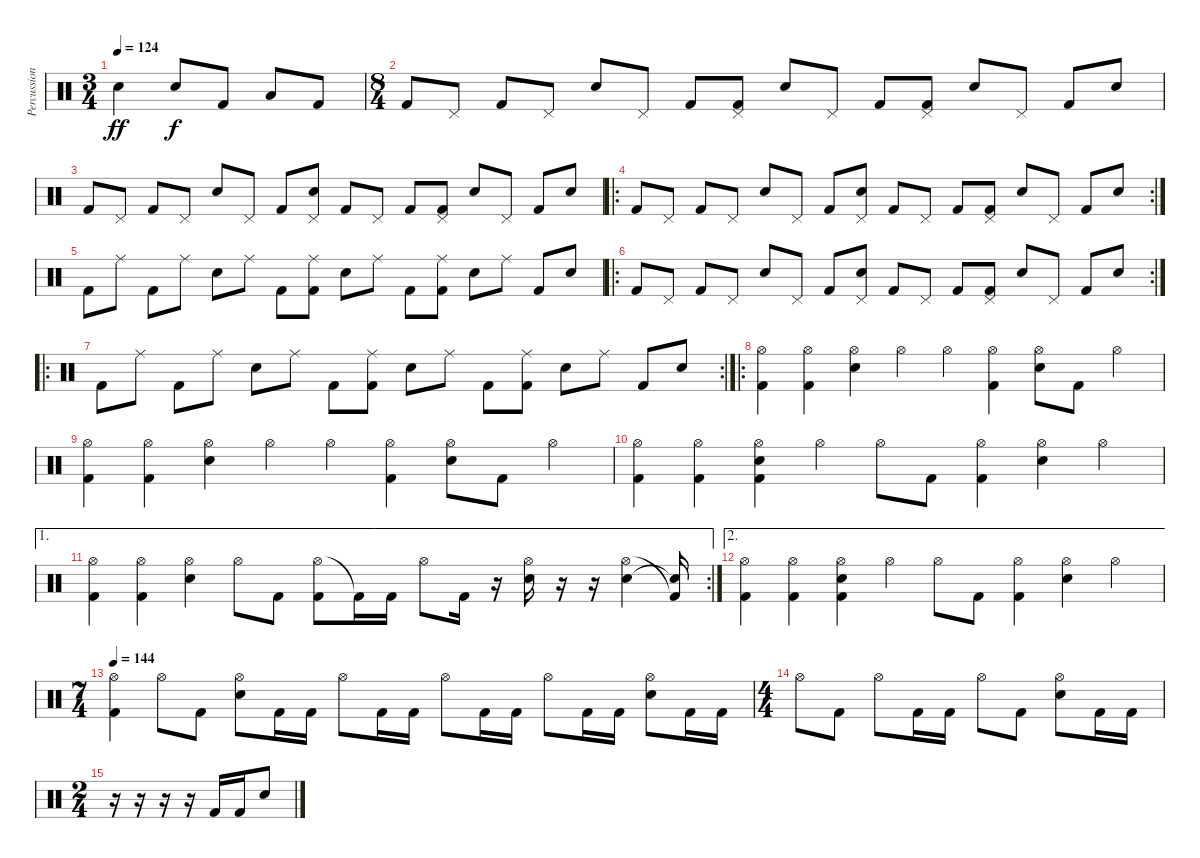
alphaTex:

\track ("Percussion" "Percussion") {instrument percussion}
\staff {score}
\articulation defaults
\ts (3 4)
\tempo 124
\clef neutral
\ks c "Snare (hit) 2"{tr (38 32)}.4{dy ff} "Snare (hit) 2".8{dy f} "Kick (hit) 2".8 "Low Tom (hit)".8 "Kick (hit) 2".8
|
\ts (8 4)
"Kick (hit) 2".8 "Pedal Hi-Hat (hit)".8 "Kick (hit) 2".8 "Pedal Hi-Hat (hit)".8 "Snare (hit) 2".8 "Pedal Hi-Hat (hit)".8 "Kick (hit) 2".8 ("Pedal Hi-Hat (hit)" "Kick (hit) 2").8 "Snare (hit) 2".8 "Pedal Hi-Hat (hit)".8 "Kick (hit) 2".8 ("Pedal Hi-Hat (hit)" "Kick (hit) 2").8 "Snare (hit) 2".8 "Pedal Hi-Hat (hit)".8 "Kick (hit) 2".8 "Snare (hit) 2".8 |
"Kick (hit) 2".8 "Pedal Hi-Hat (hit)".8 "Kick (hit) 2".8 "Pedal Hi-Hat (hit)".8 "Snare (hit) 2".8 "Pedal Hi-Hat (hit)".8 "Kick (hit) 2".8 ("Pedal Hi-Hat (hit)" "Snare (hit) 2").8 "Kick (hit) 2".8 "Pedal Hi-Hat (hit)".8 "Kick (hit) 2".8 ("Pedal Hi-Hat (hit)" "Kick (hit) 2").8 "Snare (hit) 2".8 "Pedal Hi-Hat (hit)".8 "Kick (hit) 2".8 "Snare (hit) 2".8 |
\ro
\rc 2 "Kick (hit) 2".8 "Pedal Hi-Hat (hit)".8 "Kick (hit) 2".8 "Pedal Hi-Hat (hit)".8 "Snare (hit) 2".8 "Pedal Hi-Hat (hit)".8 "Kick (hit) 2".8
("Pedal Hi-Hat (hit)" "Snare (hit) 2").8 "Kick (hit) 2".8 "Pedal Hi-Hat (hit)".8 "Kick (hit) 2".8 ("Pedal Hi-Hat (hit)" "Kick (hit) 2").8 "Snare (hit) 2".8 "Pedal Hi-Hat (hit)".8 "Kick (hit) 2".8 "Snare (hit) 2".8 |
"Kick (hit) 2".8 "Ride (middle)".8 "Kick (hit) 2".8 "Ride (middle)".8 "Snare (hit) 2".8 "Ride (middle)".8 "Kick (hit) 2".8 ("Ride (middle)" "Kick (hit) 2").8 "Snare (hit) 2".8 "Ride (middle)".8 "Kick (hit) 2".8 ("Ride (middle)" "Kick (hit) 2").8 "Snare (hit) 2".8 "Ride (middle)".8 "Kick (hit) 2".8 "Snare (hit) 2".8 |
\ro
\rc 2 "Kick (hit) 2".8 "Pedal Hi-Hat (hit)".8 "Kick (hit) 2".8 "Pedal Hi-Hat (hit)".8 "Snare (hit) 2".8 "Pedal Hi-Hat (hit)".8 "Kick (hit) 2".8
("Pedal Hi-Hat (hit)" "Snare (hit) 2").8 "Kick (hit) 2".8 "Pedal Hi-Hat (hit)".8 "Kick (hit) 2".8 ("Pedal Hi-Hat (hit)" "Kick (hit) 2").8 "Snare (hit) 2".8 "Pedal Hi-Hat (hit)".8 "Kick (hit) 2".8 "Snare (hit) 2".8 |
\ro
\rc 2 "Kick (hit) 2".8 "Ride (middle)".8 "Kick (hit) 2".8 "Ride (middle)".8 "Snare (hit) 2".8 "Ride (middle)".8 "Kick (hit) 2".8
("Ride (middle)" "Kick (hit) 2").8 "Snare (hit) 2".8 "Ride (middle)".8 "Kick (hit) 2".8 ("Ride (middle)" "Kick (hit) 2").8 "Snare (hit) 2".8 "Ride (middle)".8 "Kick (hit) 2".8 "Snare (hit) 2".8 |
\ro
("Hi-Hat (open)" "Kick (hit) 2").4 ("Hi-Hat (open)" "Kick (hit) 2").4 ("Hi-Hat (open)" "Snare (hit) 2").4 "Hi-Hat (open)".4 "Hi-Hat (open)".4 ("Hi-Hat (open)" "Kick (hit) 2").4 ("Hi-Hat (open)" "Snare (hit) 2").8 "Kick (hit) 2".8 "Hi-Hat (open)".4 |
("Hi-Hat (open)" "Kick (hit) 2").4 ("Hi-Hat (open)" "Kick (hit) 2").4 ("Hi-Hat (open)" "Snare (hit) 2").4 "Hi-Hat (open)".4 "Hi-Hat (open)".4 ("Hi-Hat (open)" "Kick (hit) 2").4 ("Hi-Hat (open)" "Snare (hit) 2").8 "Kick (hit) 2".8 "Hi-Hat (open)".4 |
("Hi-Hat (open)" "Kick (hit) 2").4 ("Hi-Hat (open)" "Kick (hit) 2").4 ("Hi-Hat (open)" "Snare (hit) 2" "Kick (hit) 2").4 "Hi-Hat (open)".4 "Hi-Hat (open)".8 "Kick (hit) 2".8 ("Hi-Hat (open)" "Kick (hit) 2").4 ("Hi-Hat (open)" "Snare (hit) 2").4 "Hi-Hat (open)".4 |
\ae 1
\rc 2
("Hi-Hat (open)" "Kick (hit) 2").4 ("Hi-Hat (open)" "Kick (hit) 2").4 ("Hi-Hat (open)" "Snare (hit) 2").4 "Hi-Hat (open)".8 "Kick (hit) 2".8 ("Hi-Hat (open)" "Kick (hit) 2").8 "Kick (hit) 2"{t}.16 "Kick (hit) 2".16 "Hi-Hat (open)".8 "Kick (hit) 2".16 r.16 ("Hi-Hat (open)" "Snare (hit) 2").16 r.16 r.16 ("Hi-Hat (open)" "Snare (hit) 2").4 ("Kick (hit) 2"{t} "Snare (hit) 2"{t}).16 |
\ae 2
("Hi-Hat (open)" "Kick (hit) 2").4 ("Hi-Hat (open)" "Kick (hit) 2").4 ("Hi-Hat (open)" "Snare (hit) 2" "Kick (hit) 2").4 "Hi-Hat (open)".4 "Hi-Hat (open)".8 "Kick (hit) 2".8 ("Hi-Hat (open)" "Kick (hit) 2").4 ("Hi-Hat (open)" "Snare (hit) 2").4 "Hi-Hat (open)".4 |
\ts (7 4)
\tempo 144
("Hi-Hat (open)" "Kick (hit) 2").4 "Hi-Hat (open)".8 "Kick (hit) 2".8 ("Hi-Hat (open)" "Snare (hit) 2").8 "Kick (hit) 2".16 "Kick (hit) 2".16 "Hi-Hat (open)".8 "Kick (hit) 2".16 "Kick (hit) 2".16 "Hi-Hat (open)".8 "Kick (hit) 2".16 "Kick (hit) 2".16 "Hi-Hat (open)".8 "Kick (hit) 2".16 "Kick (hit) 2".16 ("Hi-Hat (open)" "Snare (hit) 2").8 "Kick (hit) 2".16 "Kick (hit) 2".16 |
\ts (4 4)
"Hi-Hat (open)".8 "Kick (hit) 2".8 "Hi-Hat (open)".8 "Kick (hit) 2".16 "Kick (hit) 2".16 "Hi-Hat (open)".8 "Kick (hit) 2".8 ("Hi-Hat (open)" "Snare (hit) 2").8 "Kick (hit) 2".16 "Kick (hit) 2".16 |
\ts (2 4)
r.16 r.16 r.16 r.16 "Kick (hit) 2".16 "Kick (hit) 2".16 "Snare (hit) 2".8
